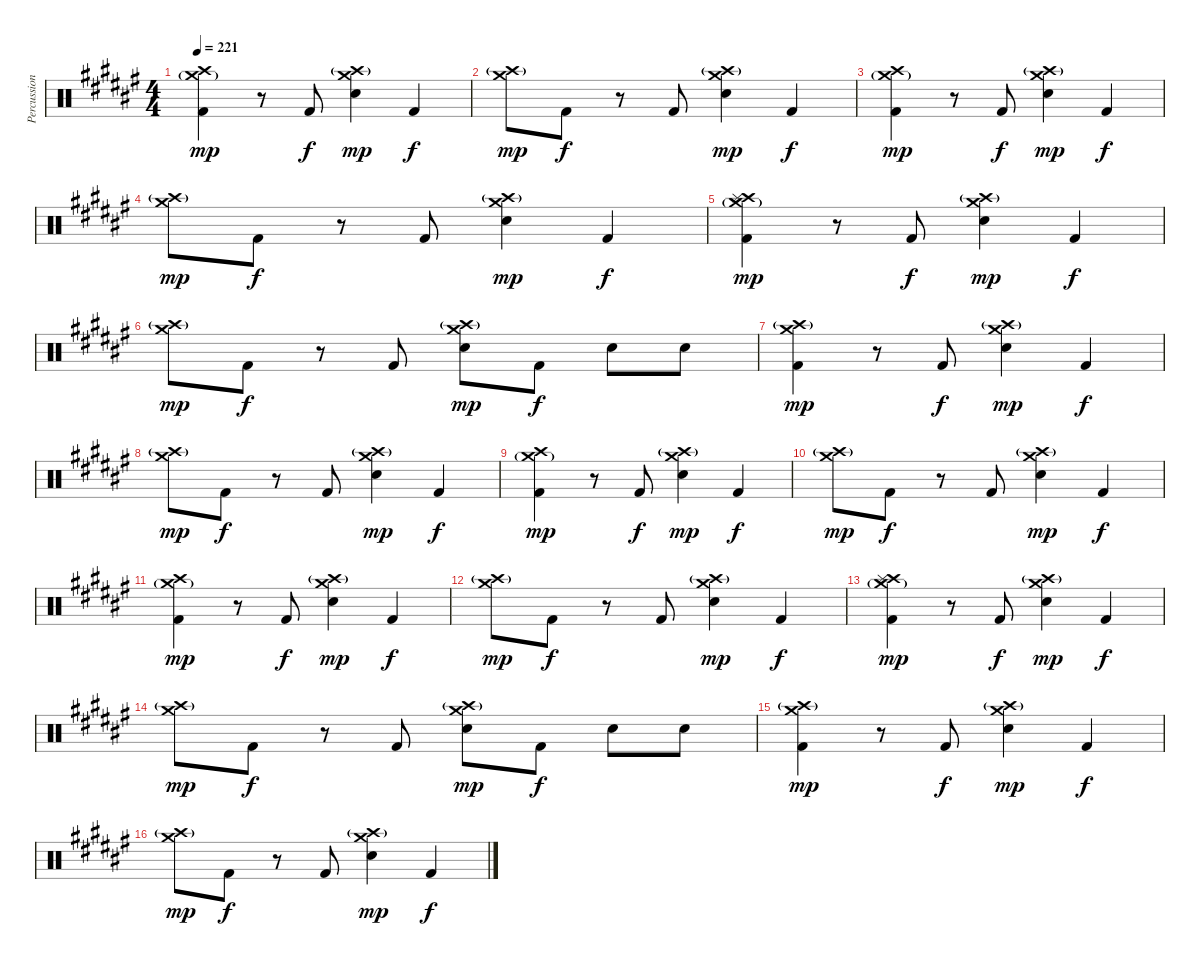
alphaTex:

\track ("Percussions" "Percussion") {instrument percussion}
\staff {score}
\articulation defaults
\ts (4 4)
\tempo 221
\clef neutral
\ks d#minor
("Crash medium (hit)"{g} "Crash high (hit)" "Kick (hit) 2").4{dy mp} r.8 "Kick (hit) 2".8{dy f} ("Crash medium (hit)" "Crash high (hit)"{g} "Electric Snare (hit)").4{dy mp} "Kick (hit) 2".4{dy f} |
("Crash medium (hit)" "Crash high (hit)"{g}).8{dy mp} "Kick (hit) 2".8{dy f} r.8 "Kick (hit) 2".8 ("Crash medium (hit)" "Crash high (hit)"{g} "Electric Snare (hit)").4{dy mp} "Kick (hit) 2".4{dy f} |
("Crash medium (hit)"{g} "Crash high (hit)" "Kick (hit) 2").4{dy mp} r.8 "Kick (hit) 2".8{dy f} ("Crash medium (hit)" "Crash high (hit)"{g} "Electric Snare (hit)").4{dy mp} "Kick (hit) 2".4{dy f} |
("Crash medium (hit)" "Crash high (hit)"{g}).8{dy mp} "Kick (hit) 2".8{dy f} r.8 "Kick (hit) 2".8 ("Crash medium (hit)" "Crash high (hit)"{g} "Electric Snare (hit)").4{dy mp} "Kick (hit) 2".4{dy f} |
("Crash medium (hit)"{g} "Crash high (hit)" "Splash (hit)" "Kick (hit) 2").4{dy mp} r.8 "Kick (hit) 2".8{dy f} ("Crash medium (hit)" "Crash high (hit)"{g} "Electric Snare (hit)").4{dy mp} "Kick (hit) 2".4{dy f} |
("Crash medium (hit)" "Crash high (hit)"{g}).8{dy mp} "Kick (hit) 2".8{dy f} r.8 "Kick (hit) 2".8 ("Crash medium (hit)" "Crash high (hit)"{g} "Electric Snare (hit)").8{dy mp} "Kick (hit) 2".8{dy f} "Electric Snare (hit)".8 "Electric Snare (hit)".8 |
("Crash medium (hit)" "Crash high (hit)"{g} "Kick (hit) 2").4{dy mp} r.8 "Kick (hit) 2".8{dy f} ("Crash medium (hit)" "Crash high (hit)"{g} "Electric Snare (hit)").4{dy mp} "Kick (hit) 2".4{dy f} |
("Crash medium (hit)" "Crash high (hit)"{g}).8{dy mp} "Kick (hit) 2".8{dy f} r.8 "Kick (hit) 2".8 ("Crash medium (hit)" "Crash high (hit)"{g} "Electric Snare (hit)").4{dy mp} "Kick (hit) 2".4{dy f} |
("Crash medium (hit)"{g} "Crash high (hit)" "Kick (hit) 2").4{dy mp} r.8 "Kick (hit) 2".8{dy f} ("Crash medium (hit)" "Crash high (hit)"{g} "Electric Snare (hit)").4{dy mp} "Kick (hit) 2".4{dy f} |
("Crash medium (hit)" "Crash high (hit)"{g}).8{dy mp} "Kick (hit) 2".8{dy f} r.8 "Kick (hit) 2".8 ("Crash medium (hit)" "Crash high (hit)"{g} "Electric Snare (hit)").4{dy mp} "Kick (hit) 2".4{dy f} |
("Crash medium (hit)"{g} "Crash high (hit)" "Kick (hit) 2").4{dy mp} r.8 "Kick (hit) 2".8{dy f} ("Crash medium (hit)" "Crash high (hit)"{g} "Electric Snare (hit)").4{dy mp} "Kick (hit) 2".4{dy f} |
("Crash medium (hit)" "Crash high (hit)"{g}).8{dy mp} "Kick (hit) 2".8{dy f} r.8 "Kick (hit) 2".8 ("Crash medium (hit)" "Crash high (hit)"{g} "Electric Snare (hit)").4{dy mp} "Kick (hit) 2".4{dy f} |
("Crash medium (hit)"{g} "Crash high (hit)" "Splash (hit)" "Kick (hit) 2").4{dy mp} r.8 "Kick (hit) 2".8{dy f} ("Crash medium (hit)" "Crash high (hit)"{g} "Electric Snare (hit)").4{dy mp} "Kick (hit) 2".4{dy f} |
("Crash medium (hit)" "Crash high (hit)"{g}).8{dy mp} "Kick (hit) 2".8{dy f} r.8 "Kick (hit) 2".8 ("Crash medium (hit)" "Crash high (hit)"{g} "Electric Snare (hit)").8{dy mp} "Kick (hit) 2".8{dy f} "Electric Snare (hit)".8 "Electric Snare (hit)".8 |
("Crash medium (hit)" "Crash high (hit)"{g} "Kick (hit) 2").4{dy mp} r.8 "Kick (hit) 2".8{dy f} ("Crash medium (hit)" "Crash high (hit)"{g} "Electric Snare (hit)").4{dy mp} "Kick (hit) 2".4{dy f} |
("Crash medium (hit)" "Crash high (hit)"{g}).8{dy mp} "Kick (hit) 2".8{dy f} r.8 "Kick (hit) 2".8 ("Crash medium (hit)" "Crash high (hit)"{g} "Electric Snare (hit)").4{dy mp} "Kick (hit) 2".4{dy f}
